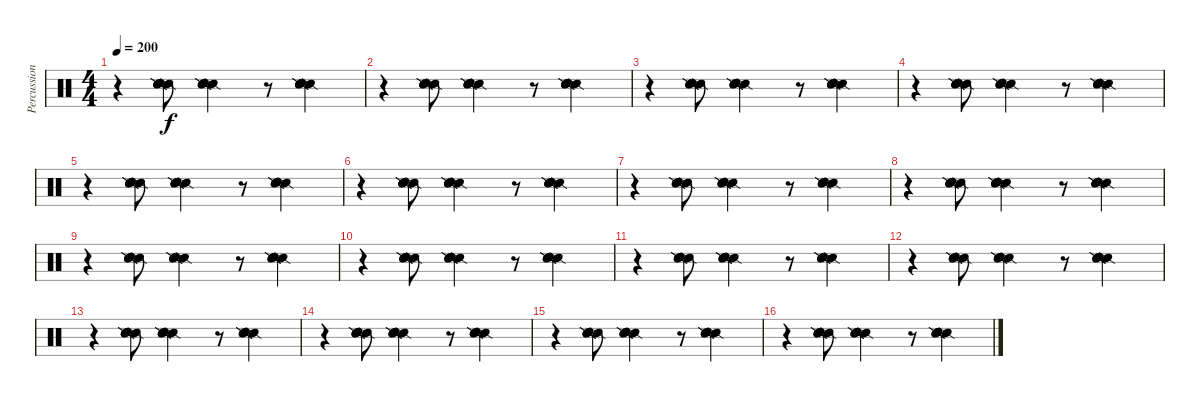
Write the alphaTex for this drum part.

\track ("Percussions" "Percussion") {instrument percussion}
\staff {score}
\articulation defaults
\ts (4 4)
\tempo 200
\clef neutral
\ks c
r.4{dy f} ("Snare (side stick) 2" "Snare (side stick) 2" "Snare (side stick) 2" "Hand Clap (hit)" "Hand Clap (hit)" "Hand Clap (hit)").8 ("Snare (side stick) 2" "Snare (side stick) 2" "Snare (side stick) 2" "Hand Clap (hit)" "Hand Clap (hit)" "Hand Clap (hit)").4 r.8 ("Snare (side stick) 2" "Snare (side stick) 2" "Snare (side stick) 2" "Hand Clap (hit)" "Hand Clap (hit)" "Hand Clap (hit)").4 |
r.4 ("Snare (side stick) 2" "Snare (side stick) 2" "Snare (side stick) 2" "Hand Clap (hit)" "Hand Clap (hit)" "Hand Clap (hit)").8 ("Snare (side stick) 2" "Snare (side stick) 2" "Snare (side stick) 2" "Hand Clap (hit)" "Hand Clap (hit)" "Hand Clap (hit)").4 r.8 ("Snare (side stick) 2" "Snare (side stick) 2" "Snare (side stick) 2" "Hand Clap (hit)" "Hand Clap (hit)" "Hand Clap (hit)").4 |
r.4 ("Snare (side stick) 2" "Snare (side stick) 2" "Snare (side stick) 2" "Hand Clap (hit)" "Hand Clap (hit)" "Hand Clap (hit)").8 ("Snare (side stick) 2" "Snare (side stick) 2" "Snare (side stick) 2" "Hand Clap (hit)" "Hand Clap (hit)" "Hand Clap (hit)").4 r.8 ("Snare (side stick) 2" "Snare (side stick) 2" "Snare (side stick) 2" "Hand Clap (hit)" "Hand Clap (hit)" "Hand Clap (hit)").4 |
r.4 ("Snare (side stick) 2" "Snare (side stick) 2" "Snare (side stick) 2" "Hand Clap (hit)" "Hand Clap (hit)" "Hand Clap (hit)").8 ("Snare (side stick) 2" "Snare (side stick) 2" "Snare (side stick) 2" "Hand Clap (hit)" "Hand Clap (hit)" "Hand Clap (hit)").4 r.8 ("Snare (side stick) 2" "Snare (side stick) 2" "Snare (side stick) 2" "Hand Clap (hit)" "Hand Clap (hit)" "Hand Clap (hit)").4 |
r.4 ("Snare (side stick) 2" "Snare (side stick) 2" "Snare (side stick) 2" "Hand Clap (hit)" "Hand Clap (hit)" "Hand Clap (hit)").8 ("Snare (side stick) 2" "Snare (side stick) 2" "Snare (side stick) 2" "Hand Clap (hit)" "Hand Clap (hit)" "Hand Clap (hit)").4 r.8 ("Snare (side stick) 2" "Snare (side stick) 2" "Snare (side stick) 2" "Hand Clap (hit)" "Hand Clap (hit)" "Hand Clap (hit)").4 |
r.4 ("Snare (side stick) 2" "Snare (side stick) 2" "Snare (side stick) 2" "Hand Clap (hit)" "Hand Clap (hit)" "Hand Clap (hit)").8 ("Snare (side stick) 2" "Snare (side stick) 2" "Snare (side stick) 2" "Hand Clap (hit)" "Hand Clap (hit)" "Hand Clap (hit)").4 r.8 ("Snare (side stick) 2" "Snare (side stick) 2" "Snare (side stick) 2" "Hand Clap (hit)" "Hand Clap (hit)" "Hand Clap (hit)").4 |
r.4 ("Snare (side stick) 2" "Snare (side stick) 2" "Snare (side stick) 2" "Hand Clap (hit)" "Hand Clap (hit)" "Hand Clap (hit)").8 ("Snare (side stick) 2" "Snare (side stick) 2" "Snare (side stick) 2" "Hand Clap (hit)" "Hand Clap (hit)" "Hand Clap (hit)").4 r.8 ("Snare (side stick) 2" "Snare (side stick) 2" "Snare (side stick) 2" "Hand Clap (hit)" "Hand Clap (hit)" "Hand Clap (hit)").4 |
r.4 ("Snare (side stick) 2" "Snare (side stick) 2" "Snare (side stick) 2" "Hand Clap (hit)" "Hand Clap (hit)" "Hand Clap (hit)").8 ("Snare (side stick) 2" "Snare (side stick) 2" "Snare (side stick) 2" "Hand Clap (hit)" "Hand Clap (hit)" "Hand Clap (hit)").4 r.8 ("Snare (side stick) 2" "Snare (side stick) 2" "Snare (side stick) 2" "Hand Clap (hit)" "Hand Clap (hit)" "Hand Clap (hit)").4 |
r.4 ("Snare (side stick) 2" "Snare (side stick) 2" "Snare (side stick) 2" "Hand Clap (hit)" "Hand Clap (hit)" "Hand Clap (hit)").8 ("Snare (side stick) 2" "Snare (side stick) 2" "Snare (side stick) 2" "Hand Clap (hit)" "Hand Clap (hit)" "Hand Clap (hit)").4 r.8 ("Snare (side stick) 2" "Snare (side stick) 2" "Snare (side stick) 2" "Hand Clap (hit)" "Hand Clap (hit)" "Hand Clap (hit)").4 |
r.4 ("Snare (side stick) 2" "Snare (side stick) 2" "Snare (side stick) 2" "Hand Clap (hit)" "Hand Clap (hit)" "Hand Clap (hit)").8 ("Snare (side stick) 2" "Snare (side stick) 2" "Snare (side stick) 2" "Hand Clap (hit)" "Hand Clap (hit)" "Hand Clap (hit)").4 r.8 ("Snare (side stick) 2" "Snare (side stick) 2" "Snare (side stick) 2" "Hand Clap (hit)" "Hand Clap (hit)" "Hand Clap (hit)").4 |
r.4 ("Snare (side stick) 2" "Snare (side stick) 2" "Snare (side stick) 2" "Hand Clap (hit)" "Hand Clap (hit)" "Hand Clap (hit)").8 ("Snare (side stick) 2" "Snare (side stick) 2" "Snare (side stick) 2" "Hand Clap (hit)" "Hand Clap (hit)" "Hand Clap (hit)").4 r.8 ("Snare (side stick) 2" "Snare (side stick) 2" "Snare (side stick) 2" "Hand Clap (hit)" "Hand Clap (hit)" "Hand Clap (hit)").4 |
r.4 ("Snare (side stick) 2" "Snare (side stick) 2" "Snare (side stick) 2" "Hand Clap (hit)" "Hand Clap (hit)" "Hand Clap (hit)").8 ("Snare (side stick) 2" "Snare (side stick) 2" "Snare (side stick) 2" "Hand Clap (hit)" "Hand Clap (hit)" "Hand Clap (hit)").4 r.8 ("Snare (side stick) 2" "Snare (side stick) 2" "Snare (side stick) 2" "Hand Clap (hit)" "Hand Clap (hit)" "Hand Clap (hit)").4 |
r.4 ("Snare (side stick) 2" "Snare (side stick) 2" "Snare (side stick) 2" "Hand Clap (hit)" "Hand Clap (hit)" "Hand Clap (hit)").8 ("Snare (side stick) 2" "Snare (side stick) 2" "Snare (side stick) 2" "Hand Clap (hit)" "Hand Clap (hit)" "Hand Clap (hit)").4 r.8 ("Snare (side stick) 2" "Snare (side stick) 2" "Snare (side stick) 2" "Hand Clap (hit)" "Hand Clap (hit)" "Hand Clap (hit)").4 |
r.4 ("Snare (side stick) 2" "Snare (side stick) 2" "Snare (side stick) 2" "Hand Clap (hit)" "Hand Clap (hit)" "Hand Clap (hit)").8 ("Snare (side stick) 2" "Snare (side stick) 2" "Snare (side stick) 2" "Hand Clap (hit)" "Hand Clap (hit)" "Hand Clap (hit)").4 r.8 ("Snare (side stick) 2" "Snare (side stick) 2" "Snare (side stick) 2" "Hand Clap (hit)" "Hand Clap (hit)" "Hand Clap (hit)").4 |
r.4 ("Snare (side stick) 2" "Snare (side stick) 2" "Snare (side stick) 2" "Hand Clap (hit)" "Hand Clap (hit)" "Hand Clap (hit)").8 ("Snare (side stick) 2" "Snare (side stick) 2" "Snare (side stick) 2" "Hand Clap (hit)" "Hand Clap (hit)" "Hand Clap (hit)").4 r.8 ("Snare (side stick) 2" "Snare (side stick) 2" "Snare (side stick) 2" "Hand Clap (hit)" "Hand Clap (hit)" "Hand Clap (hit)").4 |
r.4 ("Snare (side stick) 2" "Snare (side stick) 2" "Snare (side stick) 2" "Hand Clap (hit)" "Hand Clap (hit)" "Hand Clap (hit)").8 ("Snare (side stick) 2" "Snare (side stick) 2" "Snare (side stick) 2" "Hand Clap (hit)" "Hand Clap (hit)" "Hand Clap (hit)").4 r.8 ("Snare (side stick) 2" "Snare (side stick) 2" "Snare (side stick) 2" "Hand Clap (hit)" "Hand Clap (hit)" "Hand Clap (hit)").4
